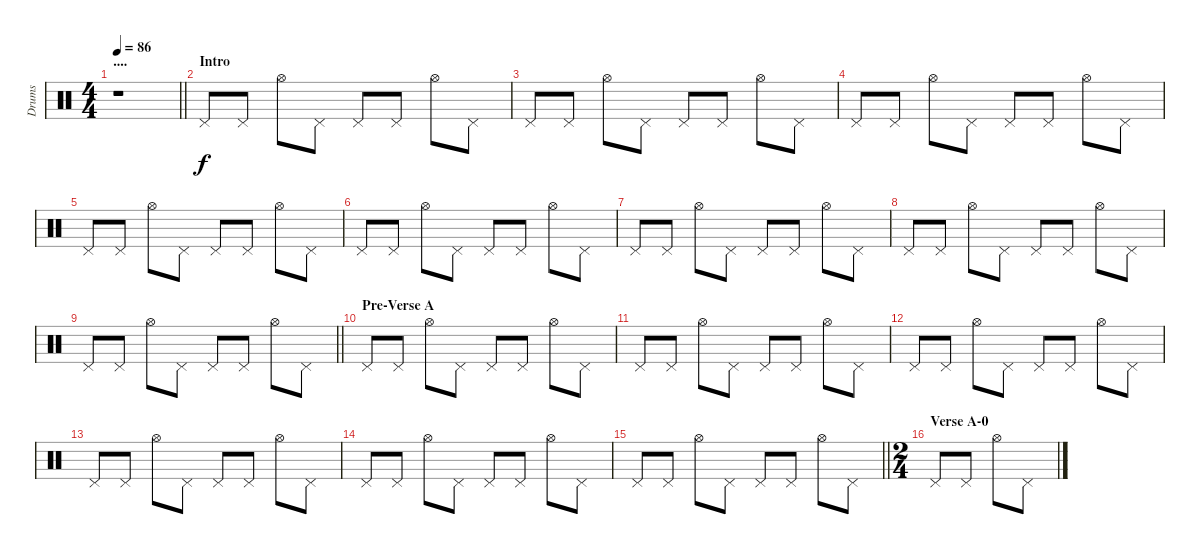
\track ("Drums" "Drums") {instrument percussion}
\staff {score}
\articulation defaults
\ts (4 4)
\section ("" "....")
\tempo 86
\clef neutral
\barLineRight lightlight
\ks c
r.1{dy f volume 0} |
\section ("" "Intro")
"Pedal Hi-Hat (hit)".8{volume 9} "Pedal Hi-Hat (hit)".8 "Hi-Hat (open)".8 "Pedal Hi-Hat (hit)".8 "Pedal Hi-Hat (hit)".8 "Pedal Hi-Hat (hit)".8 "Hi-Hat (open)".8 "Pedal Hi-Hat (hit)".8 |
"Pedal Hi-Hat (hit)".8 "Pedal Hi-Hat (hit)".8 "Hi-Hat (open)".8 "Pedal Hi-Hat (hit)".8 "Pedal Hi-Hat (hit)".8 "Pedal Hi-Hat (hit)".8 "Hi-Hat (open)".8 "Pedal Hi-Hat (hit)".8 |
"Pedal Hi-Hat (hit)".8 "Pedal Hi-Hat (hit)".8 "Hi-Hat (open)".8 "Pedal Hi-Hat (hit)".8 "Pedal Hi-Hat (hit)".8 "Pedal Hi-Hat (hit)".8 "Hi-Hat (open)".8 "Pedal Hi-Hat (hit)".8 |
"Pedal Hi-Hat (hit)".8 "Pedal Hi-Hat (hit)".8 "Hi-Hat (open)".8 "Pedal Hi-Hat (hit)".8 "Pedal Hi-Hat (hit)".8 "Pedal Hi-Hat (hit)".8 "Hi-Hat (open)".8 "Pedal Hi-Hat (hit)".8 |
"Pedal Hi-Hat (hit)".8{volume 9} "Pedal Hi-Hat (hit)".8 "Hi-Hat (open)".8 "Pedal Hi-Hat (hit)".8 "Pedal Hi-Hat (hit)".8 "Pedal Hi-Hat (hit)".8 "Hi-Hat (open)".8 "Pedal Hi-Hat (hit)".8 |
"Pedal Hi-Hat (hit)".8 "Pedal Hi-Hat (hit)".8 "Hi-Hat (open)".8 "Pedal Hi-Hat (hit)".8 "Pedal Hi-Hat (hit)".8 "Pedal Hi-Hat (hit)".8 "Hi-Hat (open)".8 "Pedal Hi-Hat (hit)".8 |
"Pedal Hi-Hat (hit)".8 "Pedal Hi-Hat (hit)".8 "Hi-Hat (open)".8 "Pedal Hi-Hat (hit)".8 "Pedal Hi-Hat (hit)".8 "Pedal Hi-Hat (hit)".8 "Hi-Hat (open)".8 "Pedal Hi-Hat (hit)".8 |
\barLineRight lightlight "Pedal Hi-Hat (hit)".8 "Pedal Hi-Hat (hit)".8 "Hi-Hat (open)".8 "Pedal Hi-Hat (hit)".8 "Pedal Hi-Hat (hit)".8 "Pedal Hi-Hat (hit)".8 "Hi-Hat (open)".8 "Pedal Hi-Hat (hit)".8
|
\section ("" "Pre-Verse A")
"Pedal Hi-Hat (hit)".8 "Pedal Hi-Hat (hit)".8 "Hi-Hat (open)".8 "Pedal Hi-Hat (hit)".8 "Pedal Hi-Hat (hit)".8 "Pedal Hi-Hat (hit)".8 "Hi-Hat (open)".8 "Pedal Hi-Hat (hit)".8 |
"Pedal Hi-Hat (hit)".8 "Pedal Hi-Hat (hit)".8 "Hi-Hat (open)".8 "Pedal Hi-Hat (hit)".8 "Pedal Hi-Hat (hit)".8 "Pedal Hi-Hat (hit)".8 "Hi-Hat (open)".8 "Pedal Hi-Hat (hit)".8 |
"Pedal Hi-Hat (hit)".8 "Pedal Hi-Hat (hit)".8 "Hi-Hat (open)".8 "Pedal Hi-Hat (hit)".8 "Pedal Hi-Hat (hit)".8 "Pedal Hi-Hat (hit)".8 "Hi-Hat (open)".8 "Pedal Hi-Hat (hit)".8 |
"Pedal Hi-Hat (hit)".8 "Pedal Hi-Hat (hit)".8 "Hi-Hat (open)".8 "Pedal Hi-Hat (hit)".8 "Pedal Hi-Hat (hit)".8 "Pedal Hi-Hat (hit)".8 "Hi-Hat (open)".8 "Pedal Hi-Hat (hit)".8 |
"Pedal Hi-Hat (hit)".8 "Pedal Hi-Hat (hit)".8 "Hi-Hat (open)".8 "Pedal Hi-Hat (hit)".8 "Pedal Hi-Hat (hit)".8 "Pedal Hi-Hat (hit)".8 "Hi-Hat (open)".8 "Pedal Hi-Hat (hit)".8 |
\barLineRight lightlight "Pedal Hi-Hat (hit)".8 "Pedal Hi-Hat (hit)".8 "Hi-Hat (open)".8 "Pedal Hi-Hat (hit)".8 "Pedal Hi-Hat (hit)".8 "Pedal Hi-Hat (hit)".8 "Hi-Hat (open)".8 "Pedal Hi-Hat (hit)".8
|
\ts (2 4)
\section ("" "Verse A-0")
"Pedal Hi-Hat (hit)".8 "Pedal Hi-Hat (hit)".8 "Hi-Hat (open)".8 "Pedal Hi-Hat (hit)".8
